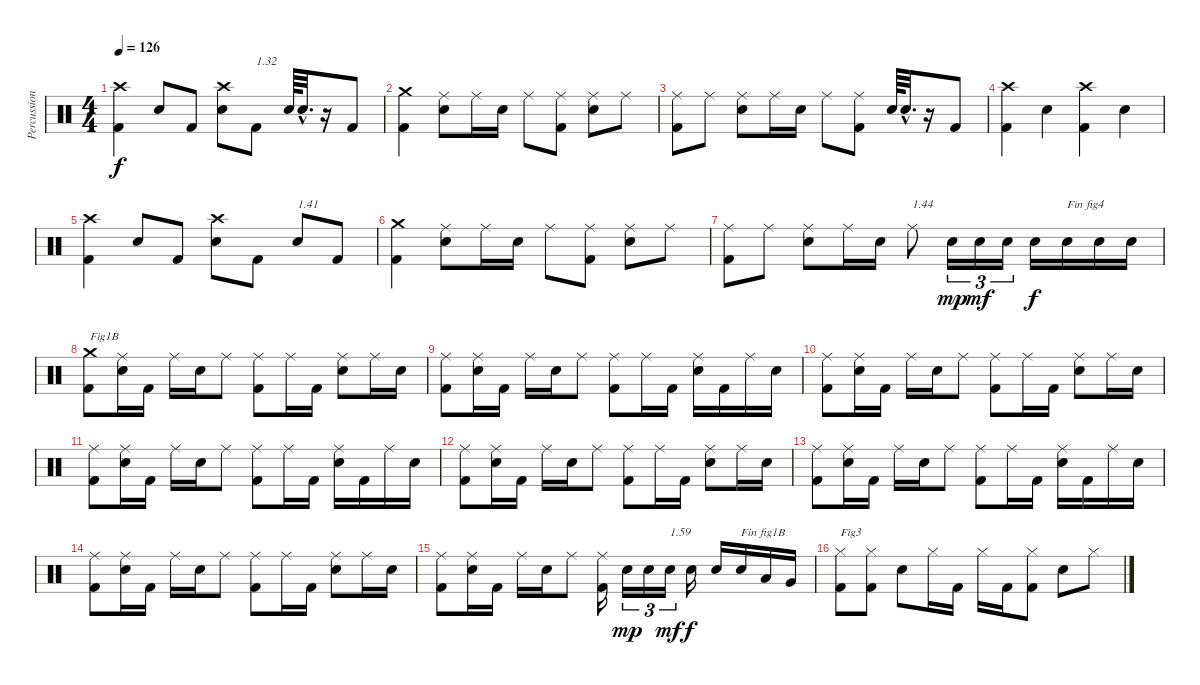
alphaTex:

\track ("Percussions" "Percussion") {instrument percussion}
\staff {score}
\articulation defaults
\ts (4 4)
\tempo 126
\clef neutral
\ks c
("Kick (hit) 2" "Crash high (hit)").4{dy f} "Electric Snare (hit)".8 "Kick (hit) 2".8 ("Electric Snare (hit)" "Crash high (hit)").8 "Kick (hit) 2".8{txt "1.32"} "Electric Snare (hit)".64 "Electric Snare (hit)"{hac}.32{d} r.16 "Kick (hit) 2".8 |
("Kick (hit) 2" "Crash medium (hit)").4 ("Electric Snare (hit)" "Ride (middle)").8 "Ride (middle)".16 "Electric Snare (hit)".16 "Ride (middle)".8 ("Kick (hit) 2" "Ride (middle)").8 ("Electric Snare (hit)" "Ride (middle)").8 "Ride (middle)".8 |
("Kick (hit) 2" "Ride (middle)").8 "Ride (middle)".8 ("Electric Snare (hit)" "Ride (middle)").8 "Ride (middle)".16 "Electric Snare (hit)".16 "Ride (middle)".8 ("Kick (hit) 2" "Ride (middle)").8 "Electric Snare (hit)".64 "Electric Snare (hit)"{hac}.32{d} r.16 "Kick (hit) 2".8 |
("Kick (hit) 2" "Crash high (hit)").4 "Electric Snare (hit)".4 ("Kick (hit) 2" "Crash high (hit)").4 "Electric Snare (hit)".4 |
("Kick (hit) 2" "Crash high (hit)").4 "Electric Snare (hit)".8 "Kick (hit) 2".8 ("Electric Snare (hit)" "Crash high (hit)").8 "Kick (hit) 2".8 "Electric Snare (hit)".8{txt "1.41"} "Kick (hit) 2".8 |
("Kick (hit) 2" "Crash medium (hit)").4 ("Electric Snare (hit)" "Ride (middle)").8 "Ride (middle)".16 "Electric Snare (hit)".16 "Ride (middle)".8 ("Kick (hit) 2" "Ride (middle)").8 ("Electric Snare (hit)" "Ride (middle)").8 "Ride (middle)".8 |
("Kick (hit) 2" "Ride (middle)").8 "Ride (middle)".8 ("Electric Snare (hit)" "Ride (middle)").8 "Ride (middle)".16 "Electric Snare (hit)".16 "Ride (middle)".8{txt "1.44"} "Electric Snare (hit)".16{tu (3 2) dy mp} "Electric Snare (hit)".16{tu (3 2) dy mf} "Electric Snare (hit)".16{tu (3 2)} "Electric Snare (hit)".16{dy f} "Electric Snare (hit)".16{txt "Fin fig4"} "Electric Snare (hit)".16 "Electric Snare (hit)".16 |
("Kick (hit) 2" "Crash medium (hit)").8{txt "Fig1B"} ("Electric Snare (hit)" "Ride (middle)").16 "Kick (hit) 2".16 "Ride (middle)".16 "Electric Snare (hit)".16 "Ride (middle)".8 ("Kick (hit) 2" "Ride (middle)").8 "Ride (middle)".16 "Kick (hit) 2".16 ("Electric Snare (hit)" "Ride (middle)").8 "Ride (middle)".16 "Electric Snare (hit)".16 |
("Kick (hit) 2" "Ride (middle)").8 ("Electric Snare (hit)" "Ride (middle)").16 "Kick (hit) 2".16 "Ride (middle)".16 "Electric Snare (hit)".16 "Ride (middle)".8 ("Kick (hit) 2" "Ride (middle)").8 "Ride (middle)".16 "Kick (hit) 2".16 ("Electric Snare (hit)" "Ride (middle)").16 "Kick (hit) 2".16 "Ride (middle)".16 "Electric Snare (hit)".16 |
("Kick (hit) 2" "Ride (middle)").8 ("Electric Snare (hit)" "Ride (middle)").16 "Kick (hit) 2".16 "Ride (middle)".16 "Electric Snare (hit)".16 "Ride (middle)".8 ("Kick (hit) 2" "Ride (middle)").8 "Ride (middle)".16 "Kick (hit) 2".16 ("Electric Snare (hit)" "Ride (middle)").8 "Ride (middle)".16 "Electric Snare (hit)".16 |
("Kick (hit) 2" "Ride (middle)").8 ("Electric Snare (hit)" "Ride (middle)").16 "Kick (hit) 2".16 "Ride (middle)".16 "Electric Snare (hit)".16 "Ride (middle)".8 ("Kick (hit) 2" "Ride (middle)").8 "Ride (middle)".16 "Kick (hit) 2".16 ("Electric Snare (hit)" "Ride (middle)").16 "Kick (hit) 2".16 "Ride (middle)".16 "Electric Snare (hit)".16 |
("Kick (hit) 2" "Ride (middle)").8 ("Electric Snare (hit)" "Ride (middle)").16 "Kick (hit) 2".16 "Ride (middle)".16 "Electric Snare (hit)".16 "Ride (middle)".8 ("Kick (hit) 2" "Ride (middle)").8 "Ride (middle)".16 "Kick (hit) 2".16 ("Electric Snare (hit)" "Ride (middle)").8 "Ride (middle)".16 "Electric Snare (hit)".16 |
("Kick (hit) 2" "Ride (middle)").8 ("Electric Snare (hit)" "Ride (middle)").16 "Kick (hit) 2".16 "Ride (middle)".16 "Electric Snare (hit)".16 "Ride (middle)".8 ("Kick (hit) 2" "Ride (middle)").8 "Ride (middle)".16 "Kick (hit) 2".16 ("Electric Snare (hit)" "Ride (middle)").16 "Kick (hit) 2".16 "Ride (middle)".16 "Electric Snare (hit)".16 |
("Kick (hit) 2" "Ride (middle)").8 ("Electric Snare (hit)" "Ride (middle)").16 "Kick (hit) 2".16 "Ride (middle)".16 "Electric Snare (hit)".16 "Ride (middle)".8 ("Kick (hit) 2" "Ride (middle)").8 "Ride (middle)".16 "Kick (hit) 2".16 ("Electric Snare (hit)" "Ride (middle)").8 "Ride (middle)".16 "Electric Snare (hit)".16 |
("Kick (hit) 2" "Ride (middle)").8 ("Electric Snare (hit)" "Ride (middle)").16 "Kick (hit) 2".16 "Ride (middle)".16 "Electric Snare (hit)".16 "Ride (middle)".8 ("Kick (hit) 2" "Ride (middle)").16 "Electric Snare (hit)".16{tu (3 2) dy mp} "Electric Snare (hit)".16{tu (3 2)} "Electric Snare (hit)".16{tu (3 2) txt "1.59" dy mf} "Electric Snare (hit)".16{dy f} "Electric Snare (hit)".16 "Electric Snare (hit)".16{txt "Fin fig1B"} "Low Tom (hit)".16 "Very Low Tom (hit)".16 |
("Kick (hit) 2" "Hi-Hat (closed)").8{txt "Fig3"} ("Kick (hit) 2" "Hi-Hat (closed)").8 "Electric Snare (hit)".8 "Hi-Hat (closed)".16 "Kick (hit) 2".16 "Hi-Hat (closed)".16 "Kick (hit) 2".16 ("Kick (hit) 2" "Hi-Hat (closed)").8 "Electric Snare (hit)".8 "Hi-Hat (closed)".8
